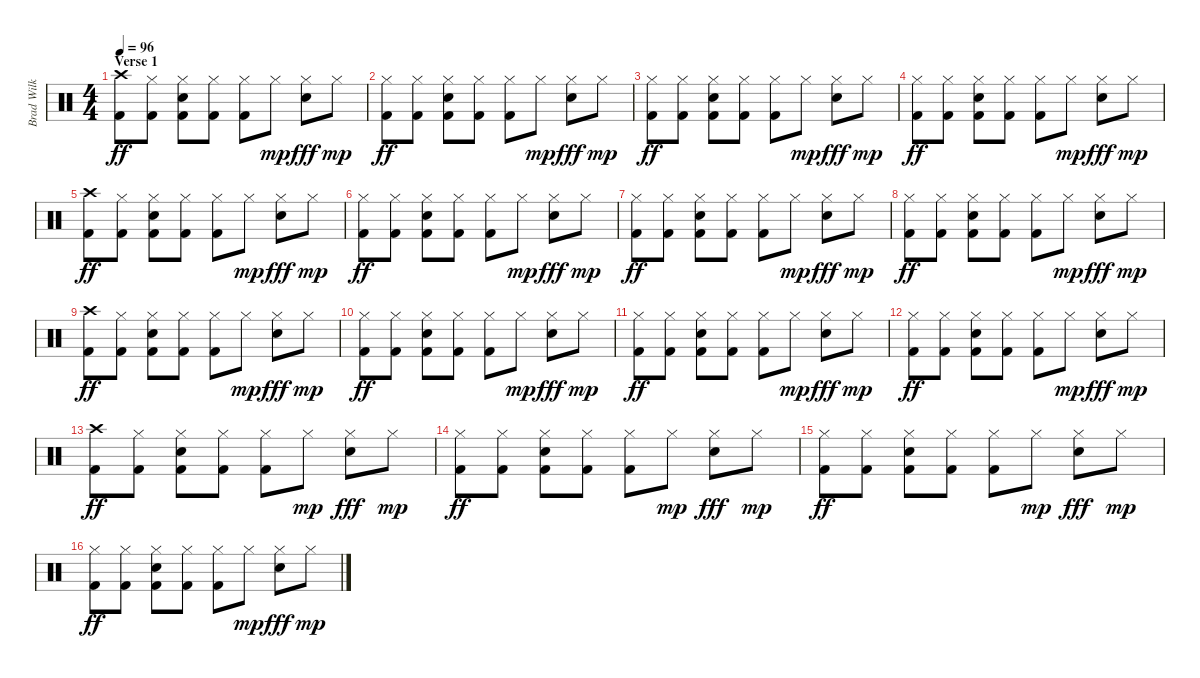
\track ("Brad Wilk / Drums" "Brad Wilk ") {instrument percussion}
\staff {score}
\articulation defaults
\ts (4 4)
\section ("" "Verse 1")
\tempo 96
\clef neutral
\ks c
("Crash high (hit)" "Kick (hit) 2").8{dy ff} ("Hi-Hat (closed)" "Kick (hit) 2").8 ("Hi-Hat (closed)" "Electric Snare (hit)" "Kick (hit) 2").8 ("Hi-Hat (closed)" "Kick (hit) 2").8 ("Hi-Hat (closed)" "Kick (hit) 2").8 "Hi-Hat (closed)".8{dy mp} ("Hi-Hat (closed)" "Electric Snare (hit)").8{dy fff} "Hi-Hat (closed)".8{dy mp} |
("Hi-Hat (closed)" "Kick (hit) 2").8{dy ff} ("Hi-Hat (closed)" "Kick (hit) 2").8 ("Hi-Hat (closed)" "Electric Snare (hit)" "Kick (hit) 2").8 ("Hi-Hat (closed)" "Kick (hit) 2").8 ("Hi-Hat (closed)" "Kick (hit) 2").8 "Hi-Hat (closed)".8{dy mp} ("Hi-Hat (closed)" "Electric Snare (hit)").8{dy fff} "Hi-Hat (closed)".8{dy mp} |
("Hi-Hat (closed)" "Kick (hit) 2").8{dy ff} ("Hi-Hat (closed)" "Kick (hit) 2").8 ("Hi-Hat (closed)" "Electric Snare (hit)" "Kick (hit) 2").8 ("Hi-Hat (closed)" "Kick (hit) 2").8 ("Hi-Hat (closed)" "Kick (hit) 2").8 "Hi-Hat (closed)".8{dy mp} ("Hi-Hat (closed)" "Electric Snare (hit)").8{dy fff} "Hi-Hat (closed)".8{dy mp} |
("Hi-Hat (closed)" "Kick (hit) 2").8{dy ff} ("Hi-Hat (closed)" "Kick (hit) 2").8 ("Hi-Hat (closed)" "Electric Snare (hit)" "Kick (hit) 2").8 ("Hi-Hat (closed)" "Kick (hit) 2").8 ("Hi-Hat (closed)" "Kick (hit) 2").8 "Hi-Hat (closed)".8{dy mp} ("Hi-Hat (closed)" "Electric Snare (hit)").8{dy fff} "Hi-Hat (closed)".8{dy mp} |
("Crash high (hit)" "Kick (hit) 2").8{dy ff} ("Hi-Hat (closed)" "Kick (hit) 2").8 ("Hi-Hat (closed)" "Electric Snare (hit)" "Kick (hit) 2").8 ("Hi-Hat (closed)" "Kick (hit) 2").8 ("Hi-Hat (closed)" "Kick (hit) 2").8 "Hi-Hat (closed)".8{dy mp} ("Hi-Hat (closed)" "Electric Snare (hit)").8{dy fff} "Hi-Hat (closed)".8{dy mp} |
("Hi-Hat (closed)" "Kick (hit) 2").8{dy ff} ("Hi-Hat (closed)" "Kick (hit) 2").8 ("Hi-Hat (closed)" "Electric Snare (hit)" "Kick (hit) 2").8 ("Hi-Hat (closed)" "Kick (hit) 2").8 ("Hi-Hat (closed)" "Kick (hit) 2").8 "Hi-Hat (closed)".8{dy mp} ("Hi-Hat (closed)" "Electric Snare (hit)").8{dy fff} "Hi-Hat (closed)".8{dy mp} |
("Hi-Hat (closed)" "Kick (hit) 2").8{dy ff} ("Hi-Hat (closed)" "Kick (hit) 2").8 ("Hi-Hat (closed)" "Electric Snare (hit)" "Kick (hit) 2").8 ("Hi-Hat (closed)" "Kick (hit) 2").8 ("Hi-Hat (closed)" "Kick (hit) 2").8 "Hi-Hat (closed)".8{dy mp} ("Hi-Hat (closed)" "Electric Snare (hit)").8{dy fff} "Hi-Hat (closed)".8{dy mp} |
("Hi-Hat (closed)" "Kick (hit) 2").8{dy ff} ("Hi-Hat (closed)" "Kick (hit) 2").8 ("Hi-Hat (closed)" "Electric Snare (hit)" "Kick (hit) 2").8 ("Hi-Hat (closed)" "Kick (hit) 2").8 ("Hi-Hat (closed)" "Kick (hit) 2").8 "Hi-Hat (closed)".8{dy mp} ("Hi-Hat (closed)" "Electric Snare (hit)").8{dy fff} "Hi-Hat (closed)".8{dy mp} |
("Crash high (hit)" "Kick (hit) 2").8{dy ff} ("Hi-Hat (closed)" "Kick (hit) 2").8 ("Hi-Hat (closed)" "Electric Snare (hit)" "Kick (hit) 2").8 ("Hi-Hat (closed)" "Kick (hit) 2").8 ("Hi-Hat (closed)" "Kick (hit) 2").8 "Hi-Hat (closed)".8{dy mp} ("Hi-Hat (closed)" "Electric Snare (hit)").8{dy fff} "Hi-Hat (closed)".8{dy mp} |
("Hi-Hat (closed)" "Kick (hit) 2").8{dy ff} ("Hi-Hat (closed)" "Kick (hit) 2").8 ("Hi-Hat (closed)" "Electric Snare (hit)" "Kick (hit) 2").8 ("Hi-Hat (closed)" "Kick (hit) 2").8 ("Hi-Hat (closed)" "Kick (hit) 2").8 "Hi-Hat (closed)".8{dy mp} ("Hi-Hat (closed)" "Electric Snare (hit)").8{dy fff} "Hi-Hat (closed)".8{dy mp} |
("Hi-Hat (closed)" "Kick (hit) 2").8{dy ff} ("Hi-Hat (closed)" "Kick (hit) 2").8 ("Hi-Hat (closed)" "Electric Snare (hit)" "Kick (hit) 2").8 ("Hi-Hat (closed)" "Kick (hit) 2").8 ("Hi-Hat (closed)" "Kick (hit) 2").8 "Hi-Hat (closed)".8{dy mp} ("Hi-Hat (closed)" "Electric Snare (hit)").8{dy fff} "Hi-Hat (closed)".8{dy mp} |
("Hi-Hat (closed)" "Kick (hit) 2").8{dy ff} ("Hi-Hat (closed)" "Kick (hit) 2").8 ("Hi-Hat (closed)" "Electric Snare (hit)" "Kick (hit) 2").8 ("Hi-Hat (closed)" "Kick (hit) 2").8 ("Hi-Hat (closed)" "Kick (hit) 2").8 "Hi-Hat (closed)".8{dy mp} ("Hi-Hat (closed)" "Electric Snare (hit)").8{dy fff} "Hi-Hat (closed)".8{dy mp} |
("Crash high (hit)" "Kick (hit) 2").8{dy ff} ("Hi-Hat (closed)" "Kick (hit) 2").8 ("Hi-Hat (closed)" "Electric Snare (hit)" "Kick (hit) 2").8 ("Hi-Hat (closed)" "Kick (hit) 2").8 ("Hi-Hat (closed)" "Kick (hit) 2").8 "Hi-Hat (closed)".8{dy mp} ("Hi-Hat (closed)" "Electric Snare (hit)").8{dy fff} "Hi-Hat (closed)".8{dy mp} |
("Hi-Hat (closed)" "Kick (hit) 2").8{dy ff} ("Hi-Hat (closed)" "Kick (hit) 2").8 ("Hi-Hat (closed)" "Electric Snare (hit)" "Kick (hit) 2").8 ("Hi-Hat (closed)" "Kick (hit) 2").8 ("Hi-Hat (closed)" "Kick (hit) 2").8 "Hi-Hat (closed)".8{dy mp} ("Hi-Hat (closed)" "Electric Snare (hit)").8{dy fff} "Hi-Hat (closed)".8{dy mp} |
("Hi-Hat (closed)" "Kick (hit) 2").8{dy ff} ("Hi-Hat (closed)" "Kick (hit) 2").8 ("Hi-Hat (closed)" "Electric Snare (hit)" "Kick (hit) 2").8 ("Hi-Hat (closed)" "Kick (hit) 2").8 ("Hi-Hat (closed)" "Kick (hit) 2").8 "Hi-Hat (closed)".8{dy mp} ("Hi-Hat (closed)" "Electric Snare (hit)").8{dy fff} "Hi-Hat (closed)".8{dy mp} |
("Hi-Hat (closed)" "Kick (hit) 2").8{dy ff} ("Hi-Hat (closed)" "Kick (hit) 2").8 ("Hi-Hat (closed)" "Electric Snare (hit)" "Kick (hit) 2").8 ("Hi-Hat (closed)" "Kick (hit) 2").8 ("Hi-Hat (closed)" "Kick (hit) 2").8 "Hi-Hat (closed)".8{dy mp} ("Hi-Hat (closed)" "Electric Snare (hit)").8{dy fff} "Hi-Hat (closed)".8{dy mp}
